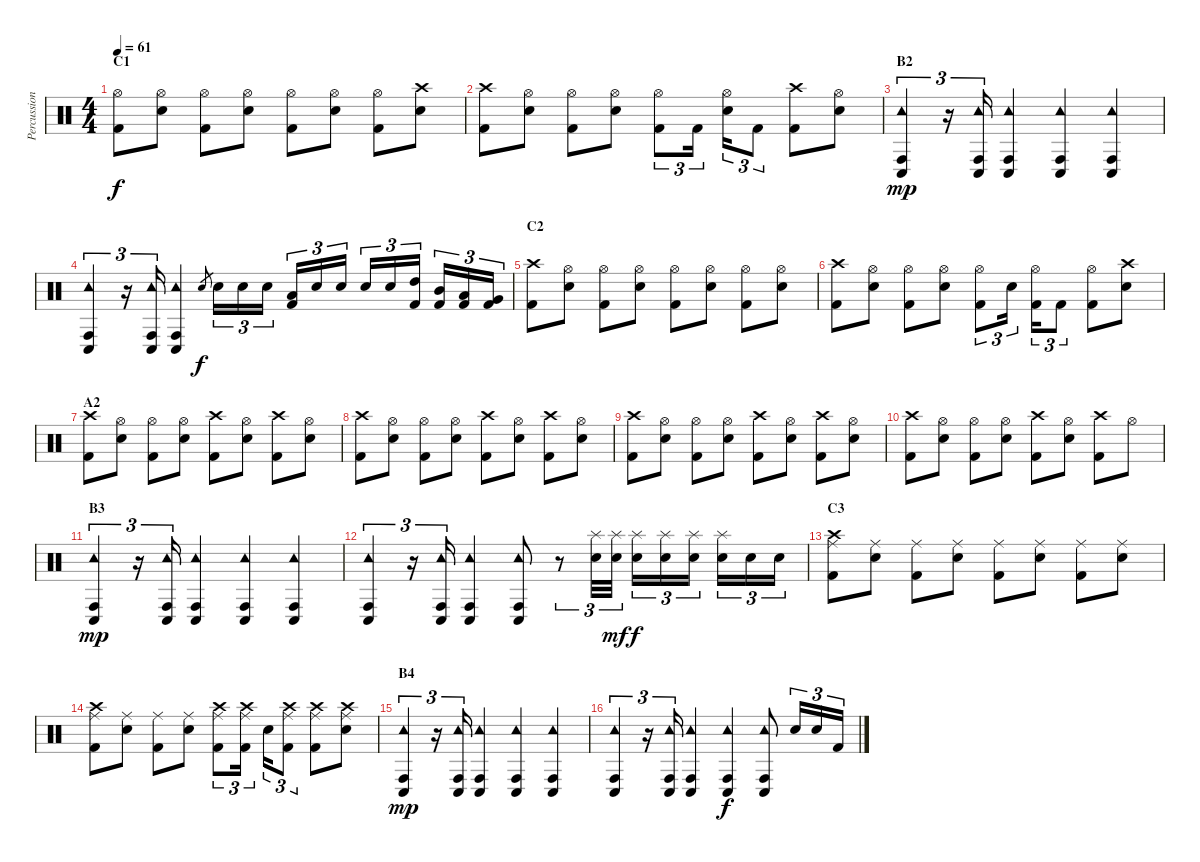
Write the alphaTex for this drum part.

\track ("Percussion" "Percussion") {instrument percussion}
\staff {score}
\articulation defaults
\ts (4 4)
\section ("" "C1")
\tempo 61
\clef neutral
\ks c
("Hi-Hat (open)" "Kick (hit) 2").8{dy f} ("Hi-Hat (open)" "Electric Snare (hit)").8 ("Hi-Hat (open)" "Kick (hit) 2").8 ("Hi-Hat (open)" "Electric Snare (hit)").8 ("Hi-Hat (open)" "Kick (hit) 2").8 ("Hi-Hat (open)" "Electric Snare (hit)").8 ("Hi-Hat (open)" "Kick (hit) 2").8 ("Crash high (hit)" "Electric Snare (hit)").8 |
("Crash high (hit)" "Kick (hit) 2").8 ("Hi-Hat (open)" "Electric Snare (hit)").8 ("Hi-Hat (open)" "Kick (hit) 2").8 ("Hi-Hat (open)" "Electric Snare (hit)").8 ("Hi-Hat (open)" "Kick (hit) 2").8{tu (3 2)} "Kick (hit) 2".16{tu (3 2)} ("Hi-Hat (open)" "Electric Snare (hit)").16{tu (3 2)} "Kick (hit) 2".8{tu (3 2)} ("Crash high (hit)" "Kick (hit) 2").8 ("Hi-Hat (open)" "Electric Snare (hit)").8 |
\section ("" "B2")
("Tambourine (hit)" "Conga low (hit)" "Conga high (hit)").4{tu (3 2) dy mp} r.16{tu (3 2)} ("Tambourine (hit)" "Conga low (hit)" "Conga high (hit)").16{tu (3 2)} ("Tambourine (hit)" "Conga low (hit)" "Conga high (hit)").4 ("Tambourine (hit)" "Conga low (hit)" "Conga high (hit)").4 ("Tambourine (hit)" "Conga low (hit)" "Conga high (hit)").4 |
("Tambourine (hit)" "Conga low (hit)" "Conga high (hit)").4{tu (3 2)} r.16{tu (3 2)} ("Tambourine (hit)" "Conga low (hit)" "Conga high (hit)").16{tu (3 2)} ("Tambourine (hit)" "Conga low (hit)" "Conga high (hit)").4 "Electric Snare (hit)".8{gr dy f} "Electric Snare (hit)".16{tu (3 2)} "Electric Snare (hit)".16{tu (3 2)} "Electric Snare (hit)".16{tu (3 2)} ("Low Tom (hit)" "Kick (hit) 2").16{tu (3 2)} "Electric Snare (hit)".16{tu (3 2)} "Electric Snare (hit)".16{tu (3 2)} "Electric Snare (hit)".16{tu (3 2)} "Electric Snare (hit)".16{tu (3 2)} ("High Tom (hit)" "Kick (hit) 2").16{tu (3 2)} ("Mid Tom (hit)" "Kick (hit) 2").16{tu (3 2)} ("Low Tom (hit)" "Kick (hit) 2").16{tu (3 2)} ("Very Low Tom (hit)" "Kick (hit) 2").16{tu (3 2)} |
\section ("" "C2")
("Crash high (hit)" "Kick (hit) 2").8 ("Hi-Hat (open)" "Electric Snare (hit)").8 ("Hi-Hat (open)" "Kick (hit) 2").8 ("Hi-Hat (open)" "Electric Snare (hit)").8 ("Hi-Hat (open)" "Kick (hit) 2").8 ("Hi-Hat (open)" "Electric Snare (hit)").8 ("Hi-Hat (open)" "Kick (hit) 2").8 ("Hi-Hat (open)" "Electric Snare (hit)").8 |
("Crash high (hit)" "Kick (hit) 2").8 ("Hi-Hat (open)" "Electric Snare (hit)").8 ("Hi-Hat (open)" "Kick (hit) 2").8 ("Hi-Hat (open)" "Electric Snare (hit)").8 ("Hi-Hat (open)" "Kick (hit) 2").8{tu (3 2)} "Electric Snare (hit)".16{tu (3 2)} ("Hi-Hat (open)" "Kick (hit) 2").16{tu (3 2)} "Kick (hit) 2".8{tu (3 2)} ("Hi-Hat (open)" "Kick (hit) 2").8 ("Crash high (hit)" "Electric Snare (hit)").8 |
\section ("" "A2")
("Crash high (hit)" "Kick (hit) 2").8 ("Hi-Hat (open)" "Electric Snare (hit)").8 ("Hi-Hat (open)" "Kick (hit) 2").8 ("Hi-Hat (open)" "Electric Snare (hit)").8 ("Crash high (hit)" "Kick (hit) 2").8 ("Hi-Hat (open)" "Electric Snare (hit)").8 ("Crash high (hit)" "Kick (hit) 2").8 ("Hi-Hat (open)" "Electric Snare (hit)").8 |
("Crash high (hit)" "Kick (hit) 2").8 ("Hi-Hat (open)" "Electric Snare (hit)").8 ("Hi-Hat (open)" "Kick (hit) 2").8 ("Hi-Hat (open)" "Electric Snare (hit)").8 ("Crash high (hit)" "Kick (hit) 2").8 ("Hi-Hat (open)" "Electric Snare (hit)").8 ("Crash high (hit)" "Kick (hit) 2").8 ("Hi-Hat (open)" "Electric Snare (hit)").8 |
("Crash high (hit)" "Kick (hit) 2").8 ("Hi-Hat (open)" "Electric Snare (hit)").8 ("Hi-Hat (open)" "Kick (hit) 2").8 ("Hi-Hat (open)" "Electric Snare (hit)").8 ("Crash high (hit)" "Kick (hit) 2").8 ("Hi-Hat (open)" "Electric Snare (hit)").8 ("Crash high (hit)" "Kick (hit) 2").8 ("Hi-Hat (open)" "Electric Snare (hit)").8 |
("Crash high (hit)" "Kick (hit) 2").8 ("Hi-Hat (open)" "Electric Snare (hit)").8 ("Hi-Hat (open)" "Kick (hit) 2").8 ("Hi-Hat (open)" "Electric Snare (hit)").8 ("Crash high (hit)" "Kick (hit) 2").8 ("Hi-Hat (open)" "Electric Snare (hit)").8 ("Crash high (hit)" "Kick (hit) 2").8 "Hi-Hat (open)".8 |
\section ("" "B3")
("Tambourine (hit)" "Conga low (hit)" "Conga high (hit)").4{tu (3 2) dy mp} r.16{tu (3 2)} ("Tambourine (hit)" "Conga low (hit)" "Conga high (hit)").16{tu (3 2)} ("Tambourine (hit)" "Conga low (hit)" "Conga high (hit)").4 ("Tambourine (hit)" "Conga low (hit)" "Conga high (hit)").4 ("Tambourine (hit)" "Conga low (hit)" "Conga high (hit)").4 |
("Tambourine (hit)" "Conga low (hit)" "Conga high (hit)").4{tu (3 2)} r.16{tu (3 2)} ("Tambourine (hit)" "Conga low (hit)" "Conga high (hit)").16{tu (3 2)} ("Tambourine (hit)" "Conga low (hit)" "Conga high (hit)").4 ("Tambourine (hit)" "Conga low (hit)" "Conga high (hit)").8 r.8{tu (3 2)} ("Splash (hit)" "Electric Snare (hit)").32{tu (3 2)} ("Splash (hit)" "Electric Snare (hit)").32{tu (3 2) dy mf} ("Splash (hit)" "Electric Snare (hit)").16{tu (3 2) dy f} ("Splash (hit)" "Electric Snare (hit)").16{tu (3 2)} ("Splash (hit)" "Electric Snare (hit)").16{tu (3 2)} ("Splash (hit)" "Electric Snare (hit)").16{tu (3 2)} "Electric Snare (hit)".16{tu (3 2)} "Electric Snare (hit)".16{tu (3 2)} |
\section ("" "C3")
("Ride (middle)" "Crash high (hit)" "Kick (hit) 2").8 ("Ride (middle)" "Electric Snare (hit)").8 ("Ride (middle)" "Kick (hit) 2").8 ("Ride (middle)" "Electric Snare (hit)").8 ("Ride (middle)" "Kick (hit) 2").8 ("Ride (middle)" "Electric Snare (hit)").8 ("Ride (middle)" "Kick (hit) 2").8 ("Ride (middle)" "Electric Snare (hit)").8 |
("Ride (middle)" "Crash high (hit)" "Kick (hit) 2").8 ("Ride (middle)" "Electric Snare (hit)").8 ("Ride (middle)" "Kick (hit) 2").8 ("Ride (middle)" "Electric Snare (hit)").8 ("Crash high (hit)" "Ride (middle)" "Kick (hit) 2").8{tu (3 2)} ("Crash high (hit)" "Ride (middle)" "Kick (hit) 2").16{tu (3 2)} "Electric Snare (hit)".16{tu (3 2)} ("Crash high (hit)" "Ride (middle)" "Kick (hit) 2").8{tu (3 2)} ("Crash high (hit)" "Ride (middle)" "Kick (hit) 2").8 ("Crash high (hit)" "Ride (middle)" "Electric Snare (hit)").8 |
\section ("" "B4")
("Tambourine (hit)" "Conga low (hit)" "Conga high (hit)").4{tu (3 2) dy mp} r.16{tu (3 2)} ("Tambourine (hit)" "Conga low (hit)" "Conga high (hit)").16{tu (3 2)} ("Tambourine (hit)" "Conga low (hit)" "Conga high (hit)").4 ("Tambourine (hit)" "Conga low (hit)" "Conga high (hit)").4 ("Tambourine (hit)" "Conga low (hit)" "Conga high (hit)").4 |
("Tambourine (hit)" "Conga low (hit)" "Conga high (hit)").4{tu (3 2)} r.16{tu (3 2)} ("Tambourine (hit)" "Conga low (hit)" "Conga high (hit)").16{tu (3 2)} ("Tambourine (hit)" "Conga low (hit)" "Conga high (hit)").4 ("Tambourine (hit)" "Conga low (hit)" "Conga high (hit)").4{dy f} ("Tambourine (hit)" "Conga low (hit)" "Conga high (hit)").8 "Electric Snare (hit)".16{tu (3 2)} "Electric Snare (hit)".16{tu (3 2)} "Kick (hit) 2".16{tu (3 2)}
